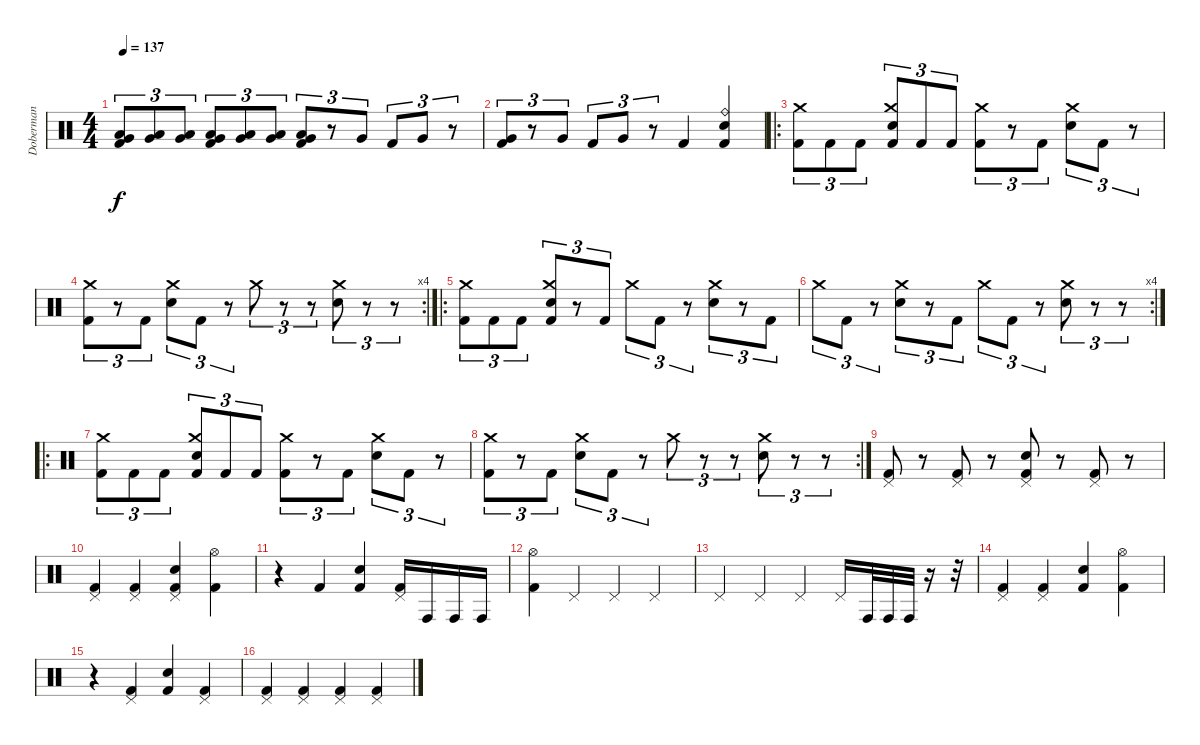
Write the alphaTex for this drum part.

\track ("Doberman" "Doberman") {instrument percussion}
\staff {score}
\articulation defaults
\ts (4 4)
\tempo 137
\clef neutral
\ks c
("Low Floor Tom (hit)" "Very Low Tom (hit)" "Kick (hit) 2").8{tu (3 2) dy f} ("Low Floor Tom (hit)" "Very Low Tom (hit)").8{tu (3 2)} ("Low Floor Tom (hit)" "Very Low Tom (hit)").8{tu (3 2)} ("Low Floor Tom (hit)" "Very Low Tom (hit)" "Kick (hit) 2").8{tu (3 2)} ("Low Floor Tom (hit)" "Very Low Tom (hit)").8{tu (3 2)} ("Low Floor Tom (hit)" "Very Low Tom (hit)").8{tu (3 2)} ("Low Floor Tom (hit)" "Very Low Tom (hit)" "Kick (hit) 2").8{tu (3 2)} r.8{tu (3 2)} "Very Low Tom (hit)".8{tu (3 2)} "Kick (hit) 2".8{tu (3 2)} "Very Low Tom (hit)".8{tu (3 2)} r.8{tu (3 2)} |
("Very Low Tom (hit)" "Kick (hit) 2").8{tu (3 2)} r.8{tu (3 2)} "Very Low Tom (hit)".8{tu (3 2)} "Kick (hit) 2".8{tu (3 2)} "Very Low Tom (hit)".8{tu (3 2)} r.8{tu (3 2)} "Kick (hit) 2".4 ("Ride (bell)" "Metronome (bell)" "Kick (hit) 2").4 |
\ro
("Crash medium (hit)" "Kick (hit) 2").8{tu (3 2)} "Kick (hit) 2".8{tu (3 2)} "Kick (hit) 2".8{tu (3 2)} ("Crash medium (hit)" "Snare (hit) 2" "Kick (hit) 2").8{tu (3 2)} "Kick (hit) 2".8{tu (3 2)} "Kick (hit) 2".8{tu (3 2)} ("Crash medium (hit)" "Kick (hit) 2").8{tu (3 2)} r.8{tu (3 2)} "Kick (hit) 2".8{tu (3 2)} ("Crash medium (hit)" "Snare (hit) 2").8{tu (3 2)} "Kick (hit) 2".8{tu (3 2)} r.8{tu (3 2)} |
\rc 4
("Crash medium (hit)" "Kick (hit) 2").8{tu (3 2)} r.8{tu (3 2)} "Kick (hit) 2".8{tu (3 2)} ("Crash medium (hit)" "Snare (hit) 2").8{tu (3 2)} "Kick (hit) 2".8{tu (3 2)} r.8{tu (3 2)} "Crash medium (hit)".8{tu (3 2)} r.8{tu (3 2)} r.8{tu (3 2)} ("Crash medium (hit)" "Snare (hit) 2").8{tu (3 2)} r.8{tu (3 2)} r.8{tu (3 2)} |
\ro
("Crash medium (hit)" "Kick (hit) 2").8{tu (3 2)} "Kick (hit) 2".8{tu (3 2)} "Kick (hit) 2".8{tu (3 2)} ("Crash medium (hit)" "Snare (hit) 2" "Kick (hit) 2").8{tu (3 2)} r.8{tu (3 2)} "Kick (hit) 2".8{tu (3 2)} "Crash medium (hit)".8{tu (3 2)} "Kick (hit) 2".8{tu (3 2)} r.8{tu (3 2)} ("Crash medium (hit)" "Snare (hit) 2").8{tu (3 2)} r.8{tu (3 2)} "Kick (hit) 2".8{tu (3 2)} |
\rc 4 "Crash medium (hit)".8{tu (3 2)} "Kick (hit) 2".8{tu (3 2)}
r.8{tu (3 2)} ("Crash medium (hit)" "Snare (hit) 2").8{tu (3 2)} r.8{tu (3 2)} "Kick (hit) 2".8{tu (3 2)} "Crash medium (hit)".8{tu (3 2)} "Kick (hit) 2".8{tu (3 2)} r.8{tu (3 2)} ("Crash medium (hit)" "Snare (hit) 2").8{tu (3 2)} r.8{tu (3 2)} r.8{tu (3 2)} |
\ro
("Crash medium (hit)" "Kick (hit) 2").8{tu (3 2)} "Kick (hit) 2".8{tu (3 2)} "Kick (hit) 2".8{tu (3 2)} ("Crash medium (hit)" "Snare (hit) 2" "Kick (hit) 2").8{tu (3 2)} "Kick (hit) 2".8{tu (3 2)} "Kick (hit) 2".8{tu (3 2)} ("Crash medium (hit)" "Kick (hit) 2").8{tu (3 2)} r.8{tu (3 2)} "Kick (hit) 2".8{tu (3 2)} ("Crash medium (hit)" "Snare (hit) 2").8{tu (3 2)} "Kick (hit) 2".8{tu (3 2)} r.8{tu (3 2)} |
\rc 2
("Crash medium (hit)" "Kick (hit) 2").8{tu (3 2)} r.8{tu (3 2)} "Kick (hit) 2".8{tu (3 2)} ("Crash medium (hit)" "Snare (hit) 2").8{tu (3 2)} "Kick (hit) 2".8{tu (3 2)} r.8{tu (3 2)} "Crash medium (hit)".8{tu (3 2)} r.8{tu (3 2)} r.8{tu (3 2)} ("Crash medium (hit)" "Snare (hit) 2").8{tu (3 2)} r.8{tu (3 2)} r.8{tu (3 2)} |
("Pedal Hi-Hat (hit)" "Kick (hit) 2").8 r.8 ("Pedal Hi-Hat (hit)" "Kick (hit) 2").8 r.8 ("Snare (hit) 2" "Pedal Hi-Hat (hit)" "Kick (hit) 2").8 r.8 ("Pedal Hi-Hat (hit)" "Kick (hit) 2").8 r.8 |
("Pedal Hi-Hat (hit)" "Kick (hit) 2").4 ("Pedal Hi-Hat (hit)" "Kick (hit) 2").4 ("Snare (hit) 2" "Pedal Hi-Hat (hit)" "Kick (hit) 2").4 ("Hi-Hat (open)" "Kick (hit) 2").4 |
r.4 "Kick (hit) 2".4 ("Snare (hit) 2" "Kick (hit) 2").4 ("Pedal Hi-Hat (hit)" "Kick (hit) 2").16 "Conga high (hit)".16 "Conga high (hit)".16 "Conga high (hit)".16 |
("Hi-Hat (open)" "Kick (hit) 2").4 "Pedal Hi-Hat (hit)".4 "Pedal Hi-Hat (hit)".4 "Pedal Hi-Hat (hit)".4 |
"Pedal Hi-Hat (hit)".4 "Pedal Hi-Hat (hit)".4 "Pedal Hi-Hat (hit)".4 "Pedal Hi-Hat (hit)".16 "Conga high (hit)".32 "Conga high (hit)".32 "Conga high (hit)".32 r.16 r.32 |
("Pedal Hi-Hat (hit)" "Kick (hit) 2").4 ("Pedal Hi-Hat (hit)" "Kick (hit) 2").4 ("Snare (hit) 2" "Kick (hit) 2").4 ("Hi-Hat (open)" "Kick (hit) 2").4 |
r.4 ("Pedal Hi-Hat (hit)" "Kick (hit) 2").4 ("Snare (hit) 2" "Kick (hit) 2").4 ("Pedal Hi-Hat (hit)" "Kick (hit) 2").4 |
("Pedal Hi-Hat (hit)" "Kick (hit) 2").4 ("Pedal Hi-Hat (hit)" "Kick (hit) 2").4 ("Pedal Hi-Hat (hit)" "Kick (hit) 2").4 ("Pedal Hi-Hat (hit)" "Kick (hit) 2").4
